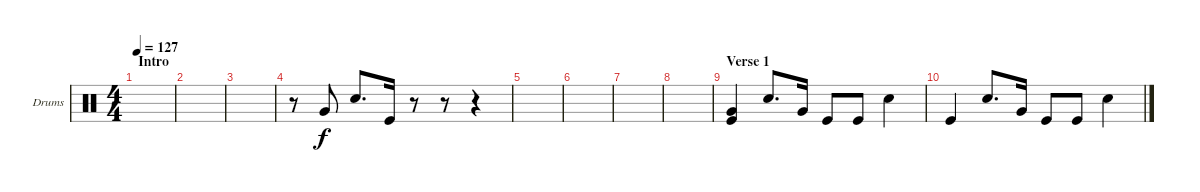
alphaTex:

\defaultSystemsLayout 4
\bracketExtendMode groupsimilarinstruments
\firstSystemTrackNameOrientation horizontal
\otherSystemsTrackNameOrientation horizontal
\track ("Drums 1" "Drums") {instrument percussion}
\staff {score}
\articulation defaults
\ts (4 4)
\section ("" "Intro")
\tempo 127
\clef neutral
\ks c
|
|
|
r.8 "Very Low Tom (hit)".8 "Snare (hit) 2".8{d} "Kick (hit)".16 r.8 r.8 r.4 |
|
|
|
|
\section ("" "Verse 1")
("Kick (hit)" "Very Low Tom (hit)").4 "Snare (hit) 2".8{d} "Very Low Tom (hit)".16 "Kick (hit)".8 "Kick (hit)".8 "Snare (hit) 2".4 |
"Kick (hit)".4 "Snare (hit) 2".8{d} "Very Low Tom (hit)".16 "Kick (hit)".8 "Kick (hit)".8 "Snare (hit) 2".4
